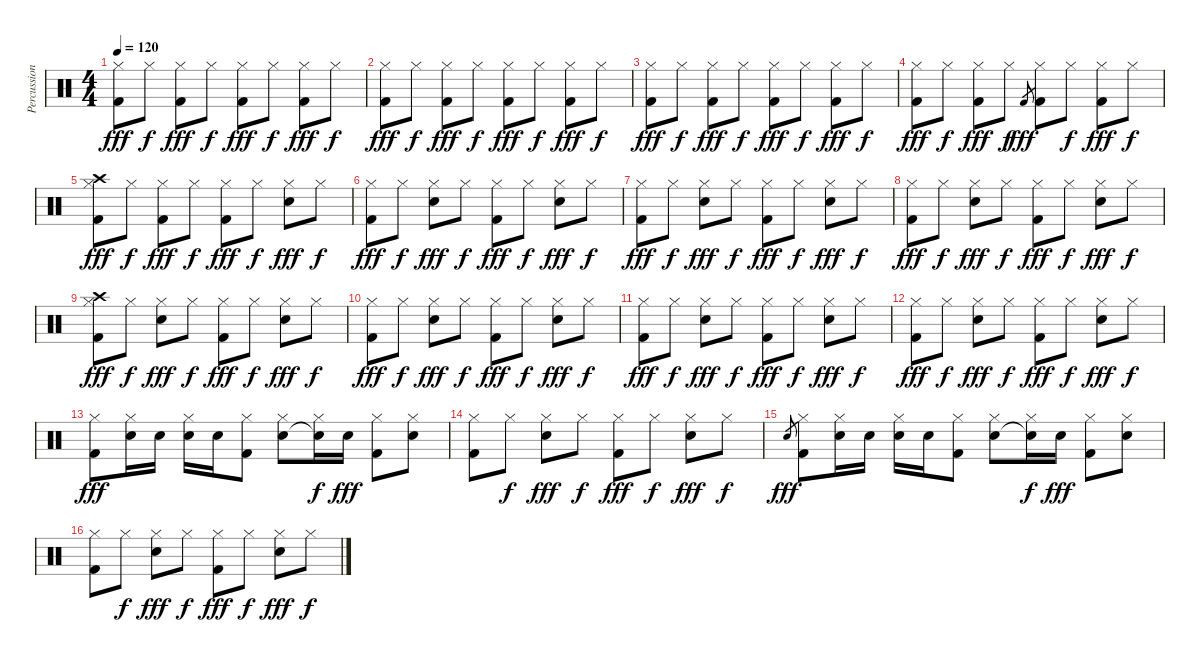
\track ("Percussion" "Percussion") {instrument percussion}
\staff {score}
\articulation defaults
\ts (4 4)
\tempo 120
\clef neutral
\ks c
("Hi-Hat (closed)" "Kick (hit) 2").8{dy fff} "Hi-Hat (closed)".8{dy f} ("Hi-Hat (closed)" "Kick (hit) 2").8{dy fff} "Hi-Hat (closed)".8{dy f} ("Hi-Hat (closed)" "Kick (hit) 2").8{dy fff} "Hi-Hat (closed)".8{dy f} ("Hi-Hat (closed)" "Kick (hit) 2").8{dy fff} "Hi-Hat (closed)".8{dy f} |
("Hi-Hat (closed)" "Kick (hit) 2").8{dy fff} "Hi-Hat (closed)".8{dy f} ("Hi-Hat (closed)" "Kick (hit) 2").8{dy fff} "Hi-Hat (closed)".8{dy f} ("Hi-Hat (closed)" "Kick (hit) 2").8{dy fff} "Hi-Hat (closed)".8{dy f} ("Hi-Hat (closed)" "Kick (hit) 2").8{dy fff} "Hi-Hat (closed)".8{dy f} |
("Hi-Hat (closed)" "Kick (hit) 2").8{dy fff} "Hi-Hat (closed)".8{dy f} ("Hi-Hat (closed)" "Kick (hit) 2").8{dy fff} "Hi-Hat (closed)".8{dy f} ("Hi-Hat (closed)" "Kick (hit) 2").8{dy fff} "Hi-Hat (closed)".8{dy f} ("Hi-Hat (closed)" "Kick (hit) 2").8{dy fff} "Hi-Hat (closed)".8{dy f} |
("Hi-Hat (closed)" "Kick (hit) 2").8{dy fff} "Hi-Hat (closed)".8{dy f} ("Hi-Hat (closed)" "Kick (hit) 2").8{dy fff} "Hi-Hat (closed)".8{dy f} "Kick (hit) 2".8{gr dy fff} ("Hi-Hat (closed)" "Kick (hit) 2").8 "Hi-Hat (closed)".8{dy f} ("Hi-Hat (closed)" "Kick (hit) 2").8{dy fff} "Hi-Hat (closed)".8{dy f} |
("Hi-Hat (closed)" "Kick (hit) 2" "Crash high (hit)").8{dy fff} "Hi-Hat (closed)".8{dy f} ("Hi-Hat (closed)" "Kick (hit) 2").8{dy fff} "Hi-Hat (closed)".8{dy f} ("Hi-Hat (closed)" "Kick (hit) 2").8{dy fff} "Hi-Hat (closed)".8{dy f} ("Hi-Hat (closed)" "Electric Snare (hit)").8{dy fff} "Hi-Hat (closed)".8{dy f} |
("Hi-Hat (closed)" "Kick (hit) 2").8{dy fff} "Hi-Hat (closed)".8{dy f} ("Hi-Hat (closed)" "Electric Snare (hit)").8{dy fff} "Hi-Hat (closed)".8{dy f} ("Hi-Hat (closed)" "Kick (hit) 2").8{dy fff} "Hi-Hat (closed)".8{dy f} ("Hi-Hat (closed)" "Electric Snare (hit)").8{dy fff} "Hi-Hat (closed)".8{dy f} |
("Hi-Hat (closed)" "Kick (hit) 2").8{dy fff} "Hi-Hat (closed)".8{dy f} ("Hi-Hat (closed)" "Electric Snare (hit)").8{dy fff} "Hi-Hat (closed)".8{dy f} ("Hi-Hat (closed)" "Kick (hit) 2").8{dy fff} "Hi-Hat (closed)".8{dy f} ("Hi-Hat (closed)" "Electric Snare (hit)").8{dy fff} "Hi-Hat (closed)".8{dy f} |
("Hi-Hat (closed)" "Kick (hit) 2").8{dy fff} "Hi-Hat (closed)".8{dy f} ("Hi-Hat (closed)" "Electric Snare (hit)").8{dy fff} "Hi-Hat (closed)".8{dy f} ("Hi-Hat (closed)" "Kick (hit) 2").8{dy fff} "Hi-Hat (closed)".8{dy f} ("Hi-Hat (closed)" "Electric Snare (hit)").8{dy fff} "Hi-Hat (closed)".8{dy f} |
("Hi-Hat (closed)" "Kick (hit) 2" "Crash high (hit)").8{dy fff} "Hi-Hat (closed)".8{dy f} ("Hi-Hat (closed)" "Electric Snare (hit)").8{dy fff} "Hi-Hat (closed)".8{dy f} ("Hi-Hat (closed)" "Kick (hit) 2").8{dy fff} "Hi-Hat (closed)".8{dy f} ("Hi-Hat (closed)" "Electric Snare (hit)").8{dy fff} "Hi-Hat (closed)".8{dy f} |
("Hi-Hat (closed)" "Kick (hit) 2").8{dy fff} "Hi-Hat (closed)".8{dy f} ("Hi-Hat (closed)" "Electric Snare (hit)").8{dy fff} "Hi-Hat (closed)".8{dy f} ("Hi-Hat (closed)" "Kick (hit) 2").8{dy fff} "Hi-Hat (closed)".8{dy f} ("Hi-Hat (closed)" "Electric Snare (hit)").8{dy fff} "Hi-Hat (closed)".8{dy f} |
("Hi-Hat (closed)" "Kick (hit) 2").8{dy fff} "Hi-Hat (closed)".8{dy f} ("Hi-Hat (closed)" "Electric Snare (hit)").8{dy fff} "Hi-Hat (closed)".8{dy f} ("Hi-Hat (closed)" "Kick (hit) 2").8{dy fff} "Hi-Hat (closed)".8{dy f} ("Hi-Hat (closed)" "Electric Snare (hit)").8{dy fff} "Hi-Hat (closed)".8{dy f} |
("Hi-Hat (closed)" "Kick (hit) 2").8{dy fff} "Hi-Hat (closed)".8{dy f} ("Hi-Hat (closed)" "Electric Snare (hit)").8{dy fff} "Hi-Hat (closed)".8{dy f} ("Hi-Hat (closed)" "Kick (hit) 2").8{dy fff} "Hi-Hat (closed)".8{dy f} ("Hi-Hat (closed)" "Electric Snare (hit)").8{dy fff} "Hi-Hat (closed)".8{dy f} |
("Kick (hit) 2" "Hi-Hat (closed)").8{dy fff} ("Electric Snare (hit)" "Hi-Hat (closed)").16 "Electric Snare (hit)".16 ("Electric Snare (hit)" "Hi-Hat (closed)").16 "Electric Snare (hit)".16 ("Kick (hit) 2" "Hi-Hat (closed)").8 ("Electric Snare (hit)" "Hi-Hat (closed)").8 ("Snare (hit)"{t} "Hi-Hat (closed)").16{dy f} "Electric Snare (hit)".16{dy fff} ("Kick (hit) 2" "Hi-Hat (closed)").8 ("Electric Snare (hit)" "Hi-Hat (closed)").8 |
("Hi-Hat (closed)" "Kick (hit) 2").8 "Hi-Hat (closed)".8{dy f} ("Hi-Hat (closed)" "Electric Snare (hit)").8{dy fff} "Hi-Hat (closed)".8{dy f} ("Hi-Hat (closed)" "Kick (hit) 2").8{dy fff} "Hi-Hat (closed)".8{dy f} ("Hi-Hat (closed)" "Electric Snare (hit)").8{dy fff} "Hi-Hat (closed)".8{dy f} |
"Electric Snare (hit)".8{gr dy fff} ("Kick (hit) 2" "Hi-Hat (closed)").8 ("Electric Snare (hit)" "Hi-Hat (closed)").16 "Electric Snare (hit)".16 ("Electric Snare (hit)" "Hi-Hat (closed)").16 "Electric Snare (hit)".16 ("Kick (hit) 2" "Hi-Hat (closed)").8 ("Electric Snare (hit)" "Hi-Hat (closed)").8 ("Snare (hit)"{t} "Hi-Hat (closed)").16{dy f} "Electric Snare (hit)".16{dy fff} ("Kick (hit) 2" "Hi-Hat (closed)").8 ("Electric Snare (hit)" "Hi-Hat (closed)").8 |
("Hi-Hat (closed)" "Kick (hit) 2").8 "Hi-Hat (closed)".8{dy f} ("Hi-Hat (closed)" "Electric Snare (hit)").8{dy fff} "Hi-Hat (closed)".8{dy f} ("Hi-Hat (closed)" "Kick (hit) 2").8{dy fff} "Hi-Hat (closed)".8{dy f} ("Hi-Hat (closed)" "Electric Snare (hit)").8{dy fff} "Hi-Hat (closed)".8{dy f}
